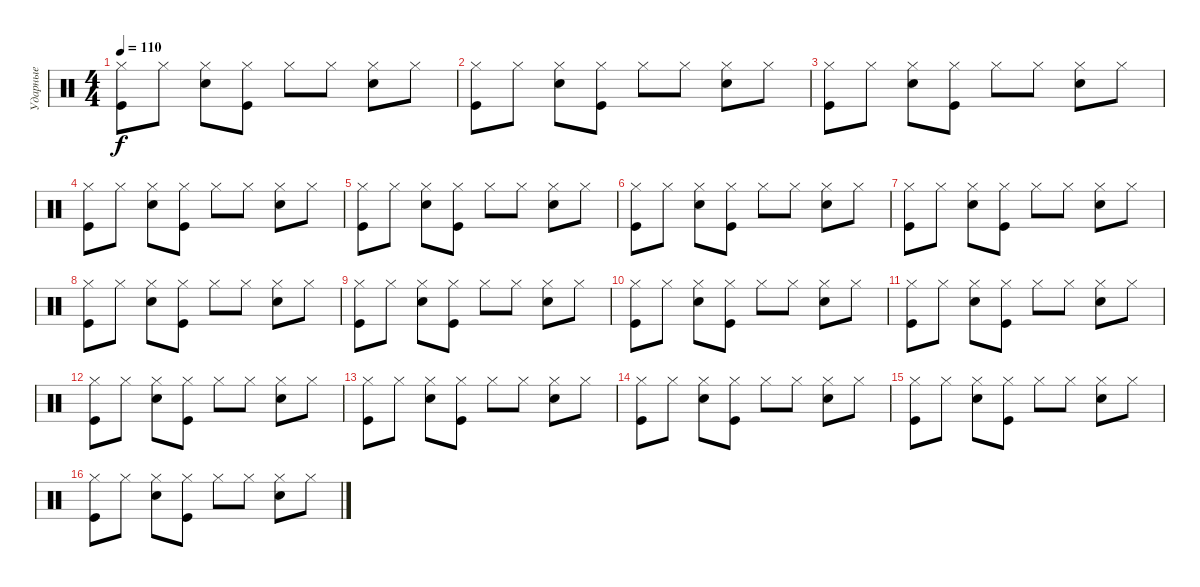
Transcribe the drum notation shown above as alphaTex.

\track ("Ударные" "Ударные") {instrument percussion}
\staff {score}
\articulation defaults
\ts (4 4)
\tempo 110
\clef neutral
\ks c
("Hi-Hat (closed)" "Kick (hit)").8{dy f} "Hi-Hat (closed)".8 ("Hi-Hat (closed)" "Snare (hit) 2").8 ("Hi-Hat (closed)" "Kick (hit)").8 "Hi-Hat (closed)".8 "Hi-Hat (closed)".8 ("Hi-Hat (closed)" "Snare (hit) 2").8 "Hi-Hat (closed)".8 |
("Hi-Hat (closed)" "Kick (hit)").8 "Hi-Hat (closed)".8 ("Hi-Hat (closed)" "Snare (hit) 2").8 ("Hi-Hat (closed)" "Kick (hit)").8 "Hi-Hat (closed)".8 "Hi-Hat (closed)".8 ("Hi-Hat (closed)" "Snare (hit) 2").8 "Hi-Hat (closed)".8 |
("Hi-Hat (closed)" "Kick (hit)").8 "Hi-Hat (closed)".8 ("Hi-Hat (closed)" "Snare (hit) 2").8 ("Hi-Hat (closed)" "Kick (hit)").8 "Hi-Hat (closed)".8 "Hi-Hat (closed)".8 ("Hi-Hat (closed)" "Snare (hit) 2").8 "Hi-Hat (closed)".8 |
("Hi-Hat (closed)" "Kick (hit)").8 "Hi-Hat (closed)".8 ("Hi-Hat (closed)" "Snare (hit) 2").8 ("Hi-Hat (closed)" "Kick (hit)").8 "Hi-Hat (closed)".8 "Hi-Hat (closed)".8 ("Hi-Hat (closed)" "Snare (hit) 2").8 "Hi-Hat (closed)".8 |
("Hi-Hat (closed)" "Kick (hit)").8 "Hi-Hat (closed)".8 ("Hi-Hat (closed)" "Snare (hit) 2").8 ("Hi-Hat (closed)" "Kick (hit)").8 "Hi-Hat (closed)".8 "Hi-Hat (closed)".8 ("Hi-Hat (closed)" "Snare (hit) 2").8 "Hi-Hat (closed)".8 |
("Hi-Hat (closed)" "Kick (hit)").8 "Hi-Hat (closed)".8 ("Hi-Hat (closed)" "Snare (hit) 2").8 ("Hi-Hat (closed)" "Kick (hit)").8 "Hi-Hat (closed)".8 "Hi-Hat (closed)".8 ("Hi-Hat (closed)" "Snare (hit) 2").8 "Hi-Hat (closed)".8 |
("Hi-Hat (closed)" "Kick (hit)").8 "Hi-Hat (closed)".8 ("Hi-Hat (closed)" "Snare (hit) 2").8 ("Hi-Hat (closed)" "Kick (hit)").8 "Hi-Hat (closed)".8 "Hi-Hat (closed)".8 ("Hi-Hat (closed)" "Snare (hit) 2").8 "Hi-Hat (closed)".8 |
("Hi-Hat (closed)" "Kick (hit)").8 "Hi-Hat (closed)".8 ("Hi-Hat (closed)" "Snare (hit) 2").8 ("Hi-Hat (closed)" "Kick (hit)").8 "Hi-Hat (closed)".8 "Hi-Hat (closed)".8 ("Hi-Hat (closed)" "Snare (hit) 2").8 "Hi-Hat (closed)".8 |
("Hi-Hat (closed)" "Kick (hit)").8 "Hi-Hat (closed)".8 ("Hi-Hat (closed)" "Snare (hit) 2").8 ("Hi-Hat (closed)" "Kick (hit)").8 "Hi-Hat (closed)".8 "Hi-Hat (closed)".8 ("Hi-Hat (closed)" "Snare (hit) 2").8 "Hi-Hat (closed)".8 |
("Hi-Hat (closed)" "Kick (hit)").8 "Hi-Hat (closed)".8 ("Hi-Hat (closed)" "Snare (hit) 2").8 ("Hi-Hat (closed)" "Kick (hit)").8 "Hi-Hat (closed)".8 "Hi-Hat (closed)".8 ("Hi-Hat (closed)" "Snare (hit) 2").8 "Hi-Hat (closed)".8 |
("Hi-Hat (closed)" "Kick (hit)").8 "Hi-Hat (closed)".8 ("Hi-Hat (closed)" "Snare (hit) 2").8 ("Hi-Hat (closed)" "Kick (hit)").8 "Hi-Hat (closed)".8 "Hi-Hat (closed)".8 ("Hi-Hat (closed)" "Snare (hit) 2").8 "Hi-Hat (closed)".8 |
("Hi-Hat (closed)" "Kick (hit)").8 "Hi-Hat (closed)".8 ("Hi-Hat (closed)" "Snare (hit) 2").8 ("Hi-Hat (closed)" "Kick (hit)").8 "Hi-Hat (closed)".8 "Hi-Hat (closed)".8 ("Hi-Hat (closed)" "Snare (hit) 2").8 "Hi-Hat (closed)".8 |
("Hi-Hat (closed)" "Kick (hit)").8 "Hi-Hat (closed)".8 ("Hi-Hat (closed)" "Snare (hit) 2").8 ("Hi-Hat (closed)" "Kick (hit)").8 "Hi-Hat (closed)".8 "Hi-Hat (closed)".8 ("Hi-Hat (closed)" "Snare (hit) 2").8 "Hi-Hat (closed)".8 |
("Hi-Hat (closed)" "Kick (hit)").8 "Hi-Hat (closed)".8 ("Hi-Hat (closed)" "Snare (hit) 2").8 ("Hi-Hat (closed)" "Kick (hit)").8 "Hi-Hat (closed)".8 "Hi-Hat (closed)".8 ("Hi-Hat (closed)" "Snare (hit) 2").8 "Hi-Hat (closed)".8 |
("Hi-Hat (closed)" "Kick (hit)").8 "Hi-Hat (closed)".8 ("Hi-Hat (closed)" "Snare (hit) 2").8 ("Hi-Hat (closed)" "Kick (hit)").8 "Hi-Hat (closed)".8 "Hi-Hat (closed)".8 ("Hi-Hat (closed)" "Snare (hit) 2").8 "Hi-Hat (closed)".8 |
("Hi-Hat (closed)" "Kick (hit)").8 "Hi-Hat (closed)".8 ("Hi-Hat (closed)" "Snare (hit) 2").8 ("Hi-Hat (closed)" "Kick (hit)").8 "Hi-Hat (closed)".8 "Hi-Hat (closed)".8 ("Hi-Hat (closed)" "Snare (hit) 2").8 "Hi-Hat (closed)".8
